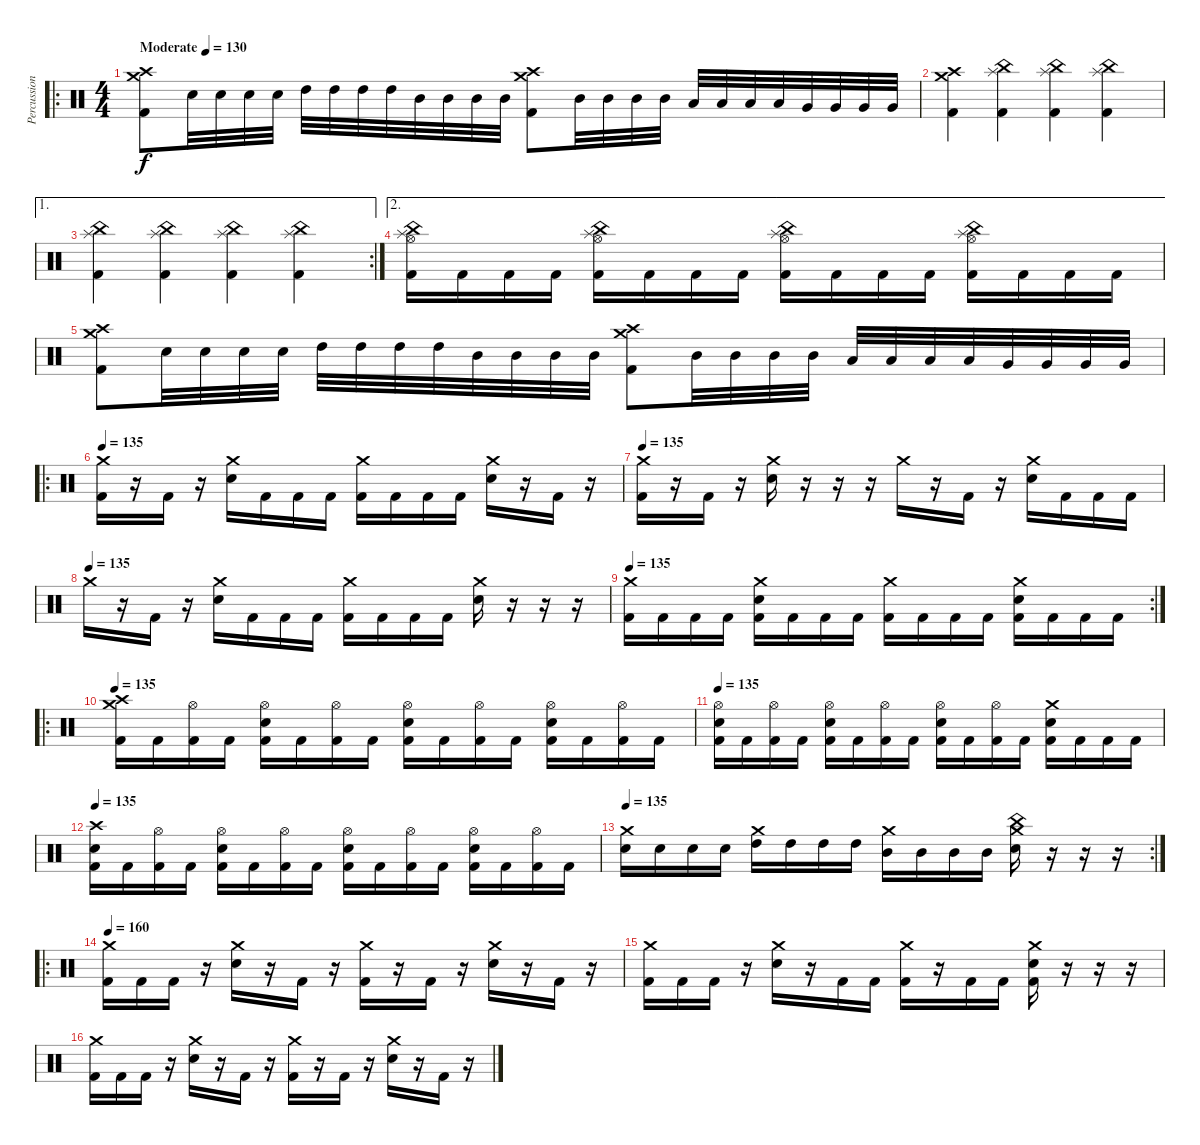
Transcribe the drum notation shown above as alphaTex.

\track ("Percussion" "Percussion") {instrument percussion}
\staff {score}
\articulation defaults
\ro
\ts (4 4)
\tempo (130 "Moderate")
\clef neutral
\ks c
("Crash high (hit)" "Crash medium (hit)" "Kick (hit) 2").8{dy f} "Snare (hit) 2".32 "Snare (hit) 2".32 "Snare (hit) 2".32 "Snare (hit) 2".32 "High Tom (hit)".32 "High Tom (hit)".32 "High Tom (hit)".32 "High Tom (hit)".32 "Mid Tom (hit)".32 "Mid Tom (hit)".32 "Mid Tom (hit)".32 "Mid Tom (hit)".32 ("Crash high (hit)" "Crash medium (hit)" "Kick (hit) 2").8 "Mid Tom (hit)".32 "Mid Tom (hit)".32 "Mid Tom (hit)".32 "Mid Tom (hit)".32 "Low Tom (hit)".32 "Low Tom (hit)".32 "Low Tom (hit)".32 "Low Tom (hit)".32 "Very Low Tom (hit)".32 "Very Low Tom (hit)".32 "Very Low Tom (hit)".32 "Very Low Tom (hit)".32 |
("Crash high (hit)" "Crash medium (hit)" "Kick (hit) 2").4 ("Splash (hit)" "China (hit)" "Kick (hit) 2").4 ("Splash (hit)" "China (hit)" "Kick (hit) 2").4 ("Splash (hit)" "China (hit)" "Kick (hit) 2").4 |
\ae 1
\rc 2
("Splash (hit)" "China (hit)" "Kick (hit) 2").4 ("Splash (hit)" "China (hit)" "Kick (hit) 2").4 ("Splash (hit)" "China (hit)" "Kick (hit) 2").4 ("Splash (hit)" "China (hit)" "Kick (hit) 2").4 |
\ae 2
("Hi-Hat (open)" "Splash (hit)" "China (hit)" "Kick (hit) 2").16 "Kick (hit) 2".16 "Kick (hit) 2".16 "Kick (hit) 2".16 ("Hi-Hat (open)" "Splash (hit)" "China (hit)" "Kick (hit) 2").16 "Kick (hit) 2".16 "Kick (hit) 2".16 "Kick (hit) 2".16 ("Hi-Hat (open)" "Splash (hit)" "China (hit)" "Kick (hit) 2").16 "Kick (hit) 2".16 "Kick (hit) 2".16 "Kick (hit) 2".16 ("Hi-Hat (open)" "Splash (hit)" "China (hit)" "Kick (hit) 2").16 "Kick (hit) 2".16 "Kick (hit) 2".16 "Kick (hit) 2".16 |
("Crash high (hit)" "Crash medium (hit)" "Kick (hit) 2").8 "Snare (hit) 2".32 "Snare (hit) 2".32 "Snare (hit) 2".32 "Snare (hit) 2".32 "High Tom (hit)".32 "High Tom (hit)".32 "High Tom (hit)".32 "High Tom (hit)".32 "Mid Tom (hit)".32 "Mid Tom (hit)".32 "Mid Tom (hit)".32 "Mid Tom (hit)".32 ("Crash high (hit)" "Crash medium (hit)" "Kick (hit) 2").8 "Mid Tom (hit)".32 "Mid Tom (hit)".32 "Mid Tom (hit)".32 "Mid Tom (hit)".32 "Low Tom (hit)".32 "Low Tom (hit)".32 "Low Tom (hit)".32 "Low Tom (hit)".32 "Very Low Tom (hit)".32 "Very Low Tom (hit)".32 "Very Low Tom (hit)".32 "Very Low Tom (hit)".32 |
\ro
\tempo 145
\tempo 135
("Crash medium (hit)" "Kick (hit) 2").16 r.16 "Kick (hit) 2".16 r.16 ("Crash medium (hit)" "Snare (hit) 2").16 "Kick (hit) 2".16 "Kick (hit) 2".16 "Kick (hit) 2".16 ("Crash medium (hit)" "Kick (hit) 2").16 "Kick (hit) 2".16 "Kick (hit) 2".16 "Kick (hit) 2".16 ("Crash medium (hit)" "Snare (hit) 2").16 r.16 "Kick (hit) 2".16 r.16 |
\tempo 135
("Crash medium (hit)" "Kick (hit) 2").16 r.16 "Kick (hit) 2".16 r.16 ("Crash medium (hit)" "Snare (hit) 2").16 r.16 r.16 r.16 "Crash medium (hit)".16 r.16 "Kick (hit) 2".16 r.16 ("Crash medium (hit)" "Snare (hit) 2").16 "Kick (hit) 2".16 "Kick (hit) 2".16 "Kick (hit) 2".16 |
\tempo (135)
"Crash medium (hit)".16 r.16 "Kick (hit) 2".16 r.16 ("Crash medium (hit)" "Snare (hit) 2").16 "Kick (hit) 2".16 "Kick (hit) 2".16 "Kick (hit) 2".16 ("Crash medium (hit)" "Kick (hit) 2").16 "Kick (hit) 2".16 "Kick (hit) 2".16 "Kick (hit) 2".16 ("Crash medium (hit)" "Snare (hit) 2").16 r.16 r.16 r.16 |
\rc 2
\tempo 135
("Crash medium (hit)" "Kick (hit) 2").16 "Kick (hit) 2".16 "Kick (hit) 2".16 "Kick (hit) 2".16 ("Crash medium (hit)" "Snare (hit) 2" "Kick (hit) 2").16 "Kick (hit) 2".16 "Kick (hit) 2".16 "Kick (hit) 2".16 ("Crash medium (hit)" "Kick (hit) 2").16 "Kick (hit) 2".16 "Kick (hit) 2".16 "Kick (hit) 2".16 ("Crash medium (hit)" "Snare (hit) 2" "Kick (hit) 2").16 "Kick (hit) 2".16 "Kick (hit) 2".16 "Kick (hit) 2".16 |
\ro
\tempo 135
("Crash medium (hit)" "Crash high (hit)" "Kick (hit) 2").16 "Kick (hit) 2".16 ("Hi-Hat (open)" "Kick (hit) 2").16 "Kick (hit) 2".16 ("Hi-Hat (open)" "Snare (hit) 2" "Kick (hit) 2").16 "Kick (hit) 2".16 ("Hi-Hat (open)" "Kick (hit) 2").16 "Kick (hit) 2".16 ("Hi-Hat (open)" "Snare (hit) 2" "Kick (hit) 2").16 "Kick (hit) 2".16 ("Hi-Hat (open)" "Kick (hit) 2").16 "Kick (hit) 2".16 ("Hi-Hat (open)" "Snare (hit) 2" "Kick (hit) 2").16 "Kick (hit) 2".16 ("Hi-Hat (open)" "Kick (hit) 2").16 "Kick (hit) 2".16 |
\tempo 135
("Hi-Hat (open)" "Snare (hit) 2" "Kick (hit) 2").16 "Kick (hit) 2".16 ("Hi-Hat (open)" "Kick (hit) 2").16 "Kick (hit) 2".16 ("Hi-Hat (open)" "Snare (hit) 2" "Kick (hit) 2").16 "Kick (hit) 2".16 ("Hi-Hat (open)" "Kick (hit) 2").16 "Kick (hit) 2".16 ("Hi-Hat (open)" "Snare (hit) 2" "Kick (hit) 2").16 "Kick (hit) 2".16 ("Hi-Hat (open)" "Kick (hit) 2").16 "Kick (hit) 2".16 ("Crash medium (hit)" "Snare (hit) 2" "Kick (hit) 2").16 "Kick (hit) 2".16 "Kick (hit) 2".16 "Kick (hit) 2".16 |
\tempo 135
("Crash high (hit)" "Snare (hit) 2" "Kick (hit) 2").16 "Kick (hit) 2".16 ("Hi-Hat (open)" "Kick (hit) 2").16 "Kick (hit) 2".16 ("Hi-Hat (open)" "Snare (hit) 2" "Kick (hit) 2").16 "Kick (hit) 2".16 ("Hi-Hat (open)" "Kick (hit) 2").16 "Kick (hit) 2".16 ("Hi-Hat (open)" "Snare (hit) 2" "Kick (hit) 2").16 "Kick (hit) 2".16 ("Hi-Hat (open)" "Kick (hit) 2").16 "Kick (hit) 2".16 ("Hi-Hat (open)" "Snare (hit) 2" "Kick (hit) 2").16 "Kick (hit) 2".16 ("Hi-Hat (open)" "Kick (hit) 2").16 "Kick (hit) 2".16 |
\rc 2
\tempo 135
("Crash medium (hit)" "Snare (hit) 2").16 "Snare (hit) 2".16 "Snare (hit) 2".16 "Snare (hit) 2".16 ("Crash medium (hit)" "High Tom (hit)").16 "High Tom (hit)".16 "High Tom (hit)".16 "High Tom (hit)".16 ("Crash medium (hit)" "Mid Tom (hit)").16 "Mid Tom (hit)".16 "Mid Tom (hit)".16 "Mid Tom (hit)".16 ("China (hit)" "Crash medium (hit)" "Snare (hit) 2").16 r.16 r.16 r.16 |
\ro
\tempo 150
\tempo 160
("Crash medium (hit)" "Kick (hit) 2").16 "Kick (hit) 2".16 "Kick (hit) 2".16 r.16 ("Crash medium (hit)" "Snare (hit) 2").16 r.16 "Kick (hit) 2".16 r.16 ("Crash medium (hit)" "Kick (hit) 2").16 r.16 "Kick (hit) 2".16 r.16 ("Crash medium (hit)" "Snare (hit) 2").16 r.16 "Kick (hit) 2".16 r.16 |
("Crash medium (hit)" "Kick (hit) 2").16 "Kick (hit) 2".16 "Kick (hit) 2".16 r.16 ("Crash medium (hit)" "Snare (hit) 2").16 r.16 "Kick (hit) 2".16 "Kick (hit) 2".16 ("Crash medium (hit)" "Kick (hit) 2").16 r.16 "Kick (hit) 2".16 "Kick (hit) 2".16 ("Crash medium (hit)" "Snare (hit) 2" "Kick (hit) 2").16 r.16 r.16 r.16 |
("Crash medium (hit)" "Kick (hit) 2").16 "Kick (hit) 2".16 "Kick (hit) 2".16 r.16 ("Crash medium (hit)" "Snare (hit) 2").16 r.16 "Kick (hit) 2".16 r.16 ("Crash medium (hit)" "Kick (hit) 2").16 r.16 "Kick (hit) 2".16 r.16 ("Crash medium (hit)" "Snare (hit) 2").16 r.16 "Kick (hit) 2".16 r.16
